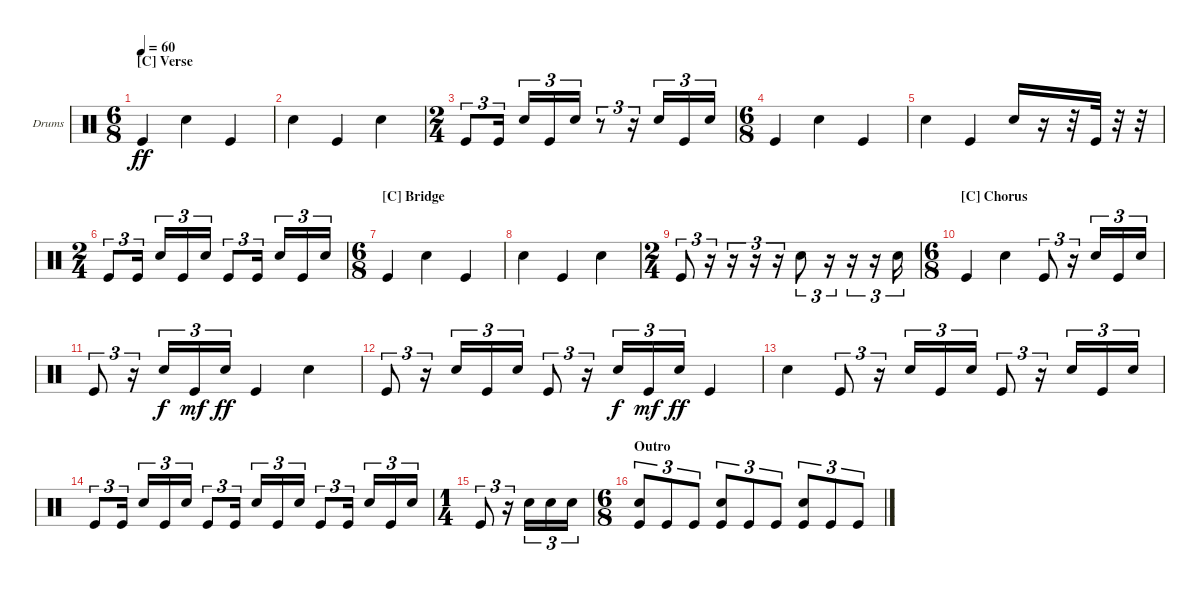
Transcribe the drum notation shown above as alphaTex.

\defaultSystemsLayout 4
\bracketExtendMode groupsimilarinstruments
\firstSystemTrackNameOrientation horizontal
\otherSystemsTrackNameOrientation horizontal
\track ("Drumkit" "Drums") {instrument percussion}
\staff {score}
\articulation defaults
\ts (6 8)
\section ("C" "Verse")
\tempo 60
\clef neutral
\ks c "Kick (hit)".4{dy ff} "Snare (hit) 2".4 "Kick (hit)".4
|
"Snare (hit) 2".4 "Kick (hit)".4 "Snare (hit) 2".4 |
\ts (2 4)
"Kick (hit)".8{tu (3 2)} "Kick (hit)".16{tu (3 2)} "Snare (hit) 2".16{tu (3 2)} "Kick (hit)".16{tu (3 2)} "Snare (hit) 2".16{tu (3 2)} r.8{tu (3 2)} r.16{tu (3 2)} "Snare (hit) 2".16{tu (3 2)} "Kick (hit)".16{tu (3 2)} "Snare (hit) 2".16{tu (3 2)} |
\ts (6 8)
"Kick (hit)".4 "Snare (hit) 2".4 "Kick (hit)".4 |
"Snare (hit) 2".4 "Kick (hit)".4 "Snare (hit) 2".16 r.16 r.32 "Kick (hit)".32 r.32 r.32 |
\ts (2 4)
"Kick (hit)".8{tu (3 2)} "Kick (hit)".16{tu (3 2)} "Snare (hit) 2".16{tu (3 2)} "Kick (hit)".16{tu (3 2)} "Snare (hit) 2".16{tu (3 2)} "Kick (hit)".8{tu (3 2)} "Kick (hit)".16{tu (3 2)} "Snare (hit) 2".16{tu (3 2)} "Kick (hit)".16{tu (3 2)} "Snare (hit) 2".16{tu (3 2)} |
\ts (6 8)
\section ("C" "Bridge")
"Kick (hit)".4 "Snare (hit) 2".4 "Kick (hit)".4 |
"Snare (hit) 2".4 "Kick (hit)".4 "Snare (hit) 2".4 |
\ts (2 4)
"Kick (hit)".8{tu (3 2)} r.16{tu (3 2)} r.16{tu (3 2)} r.16{tu (3 2)} r.16{tu (3 2)} "Snare (hit) 2".8{tu (3 2)} r.16{tu (3 2)} r.16{tu (3 2)} r.16{tu (3 2)} "Snare (hit) 2".16{tu (3 2)} |
\ts (6 8)
\section ("C" "Chorus")
"Kick (hit)".4 "Snare (hit) 2".4 "Kick (hit)".8{tu (3 2)} r.16{tu (3 2)} "Snare (hit) 2".16{tu (3 2)} "Kick (hit)".16{tu (3 2)} "Snare (hit) 2".16{tu (3 2)} |
"Kick (hit)".8{tu (3 2)} r.16{tu (3 2)} "Snare (hit) 2".16{tu (3 2) dy f} "Kick (hit)".16{tu (3 2) dy mf} "Snare (hit) 2".16{tu (3 2) dy ff} "Kick (hit)".4 "Snare (hit) 2".4 |
"Kick (hit)".8{tu (3 2)} r.16{tu (3 2)} "Snare (hit) 2".16{tu (3 2)} "Kick (hit)".16{tu (3 2)} "Snare (hit) 2".16{tu (3 2)} "Kick (hit)".8{tu (3 2)} r.16{tu (3 2)} "Snare (hit) 2".16{tu (3 2) dy f} "Kick (hit)".16{tu (3 2) dy mf} "Snare (hit) 2".16{tu (3 2) dy ff} "Kick (hit)".4 |
"Snare (hit) 2".4 "Kick (hit)".8{tu (3 2)} r.16{tu (3 2)} "Snare (hit) 2".16{tu (3 2)} "Kick (hit)".16{tu (3 2)} "Snare (hit) 2".16{tu (3 2)} "Kick (hit)".8{tu (3 2)} r.16{tu (3 2)} "Snare (hit) 2".16{tu (3 2)} "Kick (hit)".16{tu (3 2)} "Snare (hit) 2".16{tu (3 2)} |
"Kick (hit)".8{tu (3 2)} "Kick (hit)".16{tu (3 2)} "Snare (hit) 2".16{tu (3 2)} "Kick (hit)".16{tu (3 2)} "Snare (hit) 2".16{tu (3 2)} "Kick (hit)".8{tu (3 2)} "Kick (hit)".16{tu (3 2)} "Snare (hit) 2".16{tu (3 2)} "Kick (hit)".16{tu (3 2)} "Snare (hit) 2".16{tu (3 2)} "Kick (hit)".8{tu (3 2)} "Kick (hit)".16{tu (3 2)} "Snare (hit) 2".16{tu (3 2)} "Kick (hit)".16{tu (3 2)} "Snare (hit) 2".16{tu (3 2)} |
\ts (1 4)
"Kick (hit)".8{tu (3 2)} r.16{tu (3 2)} "Snare (hit) 2".16{tu (3 2)} "Snare (hit) 2".16{tu (3 2)} "Snare (hit) 2".16{tu (3 2)} |
\ts (6 8)
\section ("" "Outro")
("Kick (hit)" "Snare (hit) 2").8{tu (3 2)} "Kick (hit)".8{tu (3 2)} "Kick (hit)".8{tu (3 2)} ("Kick (hit)" "Snare (hit) 2").8{tu (3 2)} "Kick (hit)".8{tu (3 2)} "Kick (hit)".8{tu (3 2)} ("Kick (hit)" "Snare (hit) 2").8{tu (3 2)} "Kick (hit)".8{tu (3 2)} "Kick (hit)".8{tu (3 2)}
